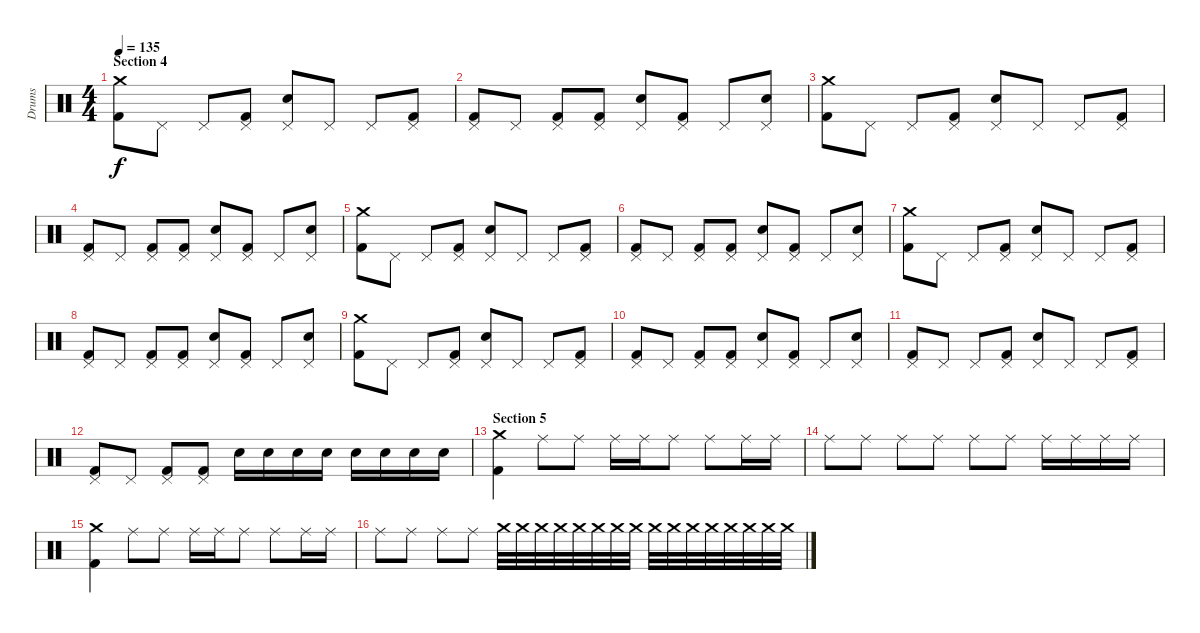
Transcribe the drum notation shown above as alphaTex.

\track ("Drums" "Drums") {instrument percussion}
\staff {score}
\articulation defaults
\ts (4 4)
\section ("" "Section 4")
\tempo 135
\clef neutral
\ks c
("Crash medium (hit)" "Kick (hit) 2").8{dy f} "Pedal Hi-Hat (hit)".8 "Pedal Hi-Hat (hit)".8 ("Pedal Hi-Hat (hit)" "Kick (hit) 2").8 ("Pedal Hi-Hat (hit)" "Electric Snare (hit)").8 "Pedal Hi-Hat (hit)".8 "Pedal Hi-Hat (hit)".8 ("Pedal Hi-Hat (hit)" "Kick (hit) 2").8 |
("Pedal Hi-Hat (hit)" "Kick (hit) 2").8 "Pedal Hi-Hat (hit)".8 ("Pedal Hi-Hat (hit)" "Kick (hit) 2").8 ("Pedal Hi-Hat (hit)" "Kick (hit) 2").8 ("Pedal Hi-Hat (hit)" "Electric Snare (hit)").8 ("Pedal Hi-Hat (hit)" "Kick (hit) 2").8 "Pedal Hi-Hat (hit)".8 ("Pedal Hi-Hat (hit)" "Electric Snare (hit)").8 |
("Crash medium (hit)" "Kick (hit) 2").8 "Pedal Hi-Hat (hit)".8 "Pedal Hi-Hat (hit)".8 ("Pedal Hi-Hat (hit)" "Kick (hit) 2").8 ("Pedal Hi-Hat (hit)" "Electric Snare (hit)").8 "Pedal Hi-Hat (hit)".8 "Pedal Hi-Hat (hit)".8 ("Pedal Hi-Hat (hit)" "Kick (hit) 2").8 |
("Pedal Hi-Hat (hit)" "Kick (hit) 2").8 "Pedal Hi-Hat (hit)".8 ("Pedal Hi-Hat (hit)" "Kick (hit) 2").8 ("Pedal Hi-Hat (hit)" "Kick (hit) 2").8 ("Pedal Hi-Hat (hit)" "Electric Snare (hit)").8 ("Pedal Hi-Hat (hit)" "Kick (hit) 2").8 "Pedal Hi-Hat (hit)".8 ("Pedal Hi-Hat (hit)" "Electric Snare (hit)").8 |
("Crash medium (hit)" "Kick (hit) 2").8 "Pedal Hi-Hat (hit)".8 "Pedal Hi-Hat (hit)".8 ("Pedal Hi-Hat (hit)" "Kick (hit) 2").8 ("Pedal Hi-Hat (hit)" "Electric Snare (hit)").8 "Pedal Hi-Hat (hit)".8 "Pedal Hi-Hat (hit)".8 ("Pedal Hi-Hat (hit)" "Kick (hit) 2").8 |
("Pedal Hi-Hat (hit)" "Kick (hit) 2").8 "Pedal Hi-Hat (hit)".8 ("Pedal Hi-Hat (hit)" "Kick (hit) 2").8 ("Pedal Hi-Hat (hit)" "Kick (hit) 2").8 ("Pedal Hi-Hat (hit)" "Electric Snare (hit)").8 ("Pedal Hi-Hat (hit)" "Kick (hit) 2").8 "Pedal Hi-Hat (hit)".8 ("Pedal Hi-Hat (hit)" "Electric Snare (hit)").8 |
("Crash medium (hit)" "Kick (hit) 2").8 "Pedal Hi-Hat (hit)".8 "Pedal Hi-Hat (hit)".8 ("Pedal Hi-Hat (hit)" "Kick (hit) 2").8 ("Pedal Hi-Hat (hit)" "Electric Snare (hit)").8 "Pedal Hi-Hat (hit)".8 "Pedal Hi-Hat (hit)".8 ("Pedal Hi-Hat (hit)" "Kick (hit) 2").8 |
("Pedal Hi-Hat (hit)" "Kick (hit) 2").8 "Pedal Hi-Hat (hit)".8 ("Pedal Hi-Hat (hit)" "Kick (hit) 2").8 ("Pedal Hi-Hat (hit)" "Kick (hit) 2").8 ("Pedal Hi-Hat (hit)" "Electric Snare (hit)").8 ("Pedal Hi-Hat (hit)" "Kick (hit) 2").8 "Pedal Hi-Hat (hit)".8 ("Pedal Hi-Hat (hit)" "Electric Snare (hit)").8 |
("Crash medium (hit)" "Kick (hit) 2").8 "Pedal Hi-Hat (hit)".8 "Pedal Hi-Hat (hit)".8 ("Pedal Hi-Hat (hit)" "Kick (hit) 2").8 ("Pedal Hi-Hat (hit)" "Electric Snare (hit)").8 "Pedal Hi-Hat (hit)".8 "Pedal Hi-Hat (hit)".8 ("Pedal Hi-Hat (hit)" "Kick (hit) 2").8 |
("Pedal Hi-Hat (hit)" "Kick (hit) 2").8 "Pedal Hi-Hat (hit)".8 ("Pedal Hi-Hat (hit)" "Kick (hit) 2").8 ("Pedal Hi-Hat (hit)" "Kick (hit) 2").8 ("Pedal Hi-Hat (hit)" "Electric Snare (hit)").8 ("Pedal Hi-Hat (hit)" "Kick (hit) 2").8 "Pedal Hi-Hat (hit)".8 ("Pedal Hi-Hat (hit)" "Electric Snare (hit)").8 |
("Pedal Hi-Hat (hit)" "Kick (hit) 2").8 "Pedal Hi-Hat (hit)".8 "Pedal Hi-Hat (hit)".8 ("Pedal Hi-Hat (hit)" "Kick (hit) 2").8 ("Pedal Hi-Hat (hit)" "Electric Snare (hit)").8 "Pedal Hi-Hat (hit)".8 "Pedal Hi-Hat (hit)".8 ("Pedal Hi-Hat (hit)" "Kick (hit) 2").8 |
("Pedal Hi-Hat (hit)" "Kick (hit) 2").8 "Pedal Hi-Hat (hit)".8 ("Pedal Hi-Hat (hit)" "Kick (hit) 2").8 ("Pedal Hi-Hat (hit)" "Kick (hit) 2").8 "Electric Snare (hit)".16 "Electric Snare (hit)".16 "Electric Snare (hit)".16 "Electric Snare (hit)".16 "Electric Snare (hit)".16 "Electric Snare (hit)".16 "Electric Snare (hit)".16 "Electric Snare (hit)".16 |
\section ("" "Section 5")
("Crash medium (hit)" "Kick (hit) 2").4 "Ride (middle)".8 "Ride (middle)".8 "Ride (middle)".16 "Ride (middle)".16 "Ride (middle)".8 "Ride (middle)".8 "Ride (middle)".16 "Ride (middle)".16 |
"Ride (middle)".8 "Ride (middle)".8 "Ride (middle)".8 "Ride (middle)".8 "Ride (middle)".8 "Ride (middle)".8 "Ride (middle)".16 "Ride (middle)".16 "Ride (middle)".16 "Ride (middle)".16 |
("Crash medium (hit)" "Kick (hit) 2").4 "Ride (middle)".8 "Ride (middle)".8 "Ride (middle)".16 "Ride (middle)".16 "Ride (middle)".8 "Ride (middle)".8 "Ride (middle)".16 "Ride (middle)".16 |
"Ride (middle)".8 "Ride (middle)".8 "Ride (middle)".8 "Ride (middle)".8{volume 0} "Crash medium (hit)".32{volume 13} "Crash medium (hit)".32 "Crash medium (hit)".32 "Crash medium (hit)".32 "Crash medium (hit)".32 "Crash medium (hit)".32 "Crash medium (hit)".32 "Crash medium (hit)".32 "Crash medium (hit)".32 "Crash medium (hit)".32 "Crash medium (hit)".32 "Crash medium (hit)".32 "Crash medium (hit)".32 "Crash medium (hit)".32 "Crash medium (hit)".32 "Crash medium (hit)".32
